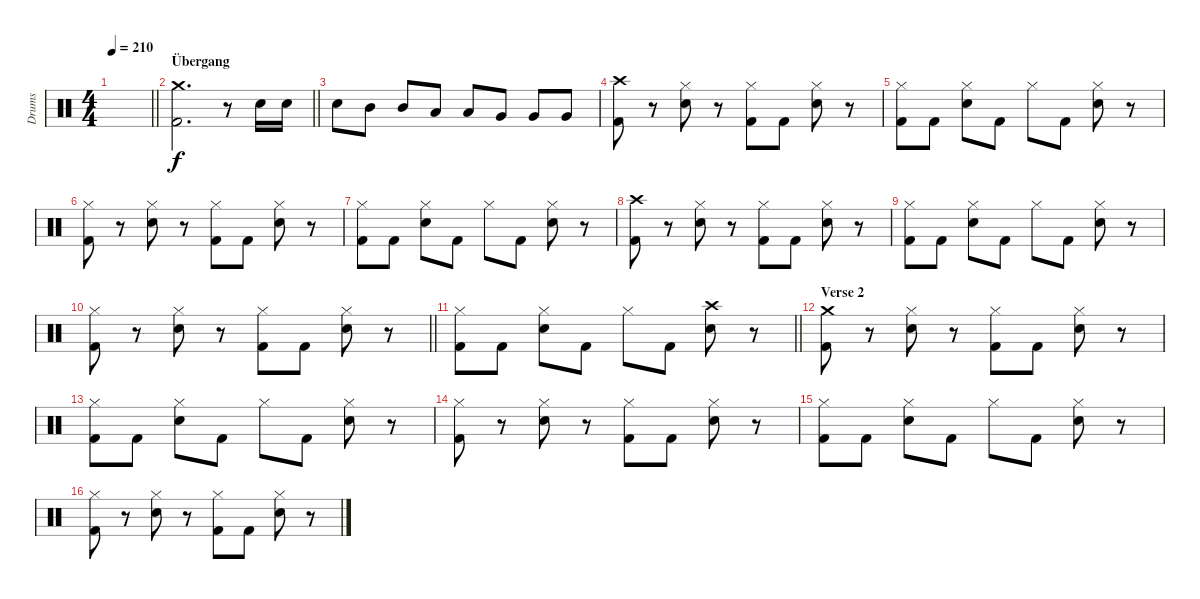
\track ("Drums" "Drums") {instrument percussion}
\staff {score}
\articulation defaults
\ts (4 4)
\tempo 210
\clef neutral
\barLineRight lightlight
\ks c
|
\section ("" "Übergang")
\barLineRight lightlight
("Crash medium (hit)" "Kick (hit) 2").2{d} r.8 "Electric Snare (hit)".16 "Electric Snare (hit)".16 |
"Electric Snare (hit)".8 "Mid Tom (hit)".8 "Mid Tom (hit)".8 "Low Tom (hit)".8 "Low Tom (hit)".8 "Very Low Tom (hit)".8 "Very Low Tom (hit)".8 "Very Low Tom (hit)".8 |
("Crash high (hit)" "Kick (hit) 2").8 r.8 ("Hi-Hat (closed)" "Electric Snare (hit)").8 r.8 ("Hi-Hat (closed)" "Kick (hit) 2").8 "Kick (hit) 2".8 ("Hi-Hat (closed)" "Electric Snare (hit)").8 r.8 |
("Hi-Hat (closed)" "Kick (hit) 2").8 "Kick (hit) 2".8 ("Hi-Hat (closed)" "Electric Snare (hit)").8 "Kick (hit) 2".8 "Hi-Hat (closed)".8 "Kick (hit) 2".8 ("Hi-Hat (closed)" "Electric Snare (hit)").8 r.8 |
("Hi-Hat (closed)" "Kick (hit) 2").8 r.8 ("Hi-Hat (closed)" "Electric Snare (hit)").8 r.8 ("Hi-Hat (closed)" "Kick (hit) 2").8 "Kick (hit) 2".8 ("Hi-Hat (closed)" "Electric Snare (hit)").8 r.8 |
("Hi-Hat (closed)" "Kick (hit) 2").8 "Kick (hit) 2".8 ("Hi-Hat (closed)" "Electric Snare (hit)").8 "Kick (hit) 2".8 "Hi-Hat (closed)".8 "Kick (hit) 2".8 ("Hi-Hat (closed)" "Electric Snare (hit)").8 r.8 |
("Crash high (hit)" "Kick (hit) 2").8 r.8 ("Hi-Hat (closed)" "Electric Snare (hit)").8 r.8 ("Hi-Hat (closed)" "Kick (hit) 2").8 "Kick (hit) 2".8 ("Hi-Hat (closed)" "Electric Snare (hit)").8 r.8 |
("Hi-Hat (closed)" "Kick (hit) 2").8 "Kick (hit) 2".8 ("Hi-Hat (closed)" "Electric Snare (hit)").8 "Kick (hit) 2".8 "Hi-Hat (closed)".8 "Kick (hit) 2".8 ("Hi-Hat (closed)" "Electric Snare (hit)").8 r.8 |
\barLineRight lightlight
("Hi-Hat (closed)" "Kick (hit) 2").8 r.8 ("Hi-Hat (closed)" "Electric Snare (hit)").8 r.8 ("Hi-Hat (closed)" "Kick (hit) 2").8 "Kick (hit) 2".8 ("Hi-Hat (closed)" "Electric Snare (hit)").8 r.8 |
\barLineRight lightlight
("Hi-Hat (closed)" "Kick (hit) 2").8 "Kick (hit) 2".8 ("Hi-Hat (closed)" "Electric Snare (hit)").8 "Kick (hit) 2".8 "Hi-Hat (closed)".8 "Kick (hit) 2".8 ("Crash high (hit)" "Electric Snare (hit)").8 r.8 |
\section ("" "Verse 2")
("Crash medium (hit)" "Kick (hit) 2").8 r.8 ("Hi-Hat (closed)" "Electric Snare (hit)").8 r.8 ("Hi-Hat (closed)" "Kick (hit) 2").8 "Kick (hit) 2".8 ("Hi-Hat (closed)" "Electric Snare (hit)").8 r.8 |
("Hi-Hat (closed)" "Kick (hit) 2").8 "Kick (hit) 2".8 ("Hi-Hat (closed)" "Electric Snare (hit)").8 "Kick (hit) 2".8 "Hi-Hat (closed)".8 "Kick (hit) 2".8 ("Hi-Hat (closed)" "Electric Snare (hit)").8 r.8 |
("Hi-Hat (closed)" "Kick (hit) 2").8 r.8 ("Hi-Hat (closed)" "Electric Snare (hit)").8 r.8 ("Hi-Hat (closed)" "Kick (hit) 2").8 "Kick (hit) 2".8 ("Hi-Hat (closed)" "Electric Snare (hit)").8 r.8 |
("Hi-Hat (closed)" "Kick (hit) 2").8 "Kick (hit) 2".8 ("Hi-Hat (closed)" "Electric Snare (hit)").8 "Kick (hit) 2".8 "Hi-Hat (closed)".8 "Kick (hit) 2".8 ("Hi-Hat (closed)" "Electric Snare (hit)").8 r.8 |
("Hi-Hat (closed)" "Kick (hit) 2").8 r.8 ("Hi-Hat (closed)" "Electric Snare (hit)").8 r.8 ("Hi-Hat (closed)" "Kick (hit) 2").8 "Kick (hit) 2".8 ("Hi-Hat (closed)" "Electric Snare (hit)").8 r.8
